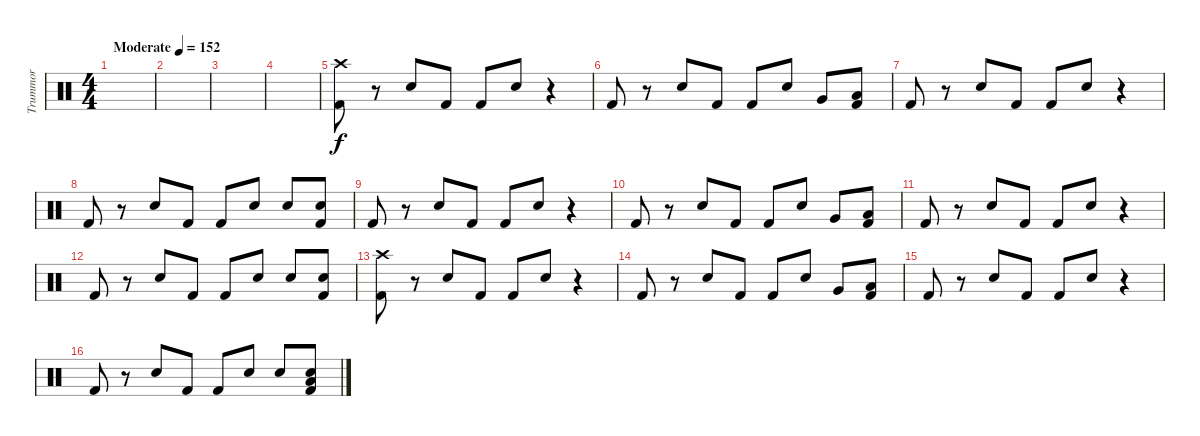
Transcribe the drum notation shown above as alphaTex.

\track ("Trummor" "Trummor") {instrument percussion}
\staff {score}
\articulation defaults
\ts (4 4)
\tempo (152 "Moderate")
\clef neutral
\ks c
|
|
|
|
("Kick (hit) 2" "Crash high (hit)").8 r.8 "Electric Snare (hit)".8 "Kick (hit) 2".8 "Kick (hit) 2".8 "Electric Snare (hit)".8 r.4 |
"Kick (hit) 2".8 r.8 "Electric Snare (hit)".8 "Kick (hit) 2".8 "Kick (hit) 2".8 "Electric Snare (hit)".8 "Very Low Tom (hit)".8 ("Kick (hit) 2" "Low Tom (hit)").8 |
"Kick (hit) 2".8 r.8 "Electric Snare (hit)".8 "Kick (hit) 2".8 "Kick (hit) 2".8 "Electric Snare (hit)".8 r.4 |
"Kick (hit) 2".8 r.8 "Electric Snare (hit)".8 "Kick (hit) 2".8 "Kick (hit) 2".8 "Electric Snare (hit)".8 "Snare (hit)".8 ("Snare (hit)" "Kick (hit) 2").8 |
"Kick (hit) 2".8 r.8 "Electric Snare (hit)".8 "Kick (hit) 2".8 "Kick (hit) 2".8 "Electric Snare (hit)".8 r.4 |
"Kick (hit) 2".8 r.8 "Electric Snare (hit)".8 "Kick (hit) 2".8 "Kick (hit) 2".8 "Electric Snare (hit)".8 "Very Low Tom (hit)".8 ("Kick (hit) 2" "Low Tom (hit)").8 |
"Kick (hit) 2".8 r.8 "Electric Snare (hit)".8 "Kick (hit) 2".8 "Kick (hit) 2".8 "Electric Snare (hit)".8 r.4 |
"Kick (hit) 2".8 r.8 "Electric Snare (hit)".8 "Kick (hit) 2".8 "Kick (hit) 2".8 "Electric Snare (hit)".8 "Snare (hit)".8 ("Snare (hit)" "Kick (hit) 2").8 |
("Kick (hit) 2" "Crash high (hit)").8 r.8 "Electric Snare (hit)".8 "Kick (hit) 2".8 "Kick (hit) 2".8 "Electric Snare (hit)".8 r.4 |
"Kick (hit) 2".8 r.8 "Electric Snare (hit)".8 "Kick (hit) 2".8 "Kick (hit) 2".8 "Electric Snare (hit)".8 "Very Low Tom (hit)".8 ("Kick (hit) 2" "Low Tom (hit)").8 |
"Kick (hit) 2".8 r.8 "Electric Snare (hit)".8 "Kick (hit) 2".8 "Kick (hit) 2".8 "Electric Snare (hit)".8 r.4 |
"Kick (hit) 2".8 r.8 "Electric Snare (hit)".8 "Kick (hit) 2".8 "Kick (hit) 2".8 "Electric Snare (hit)".8 "Snare (hit)".8 ("Snare (hit)" "Kick (hit) 2" "Low Tom (hit)").8
